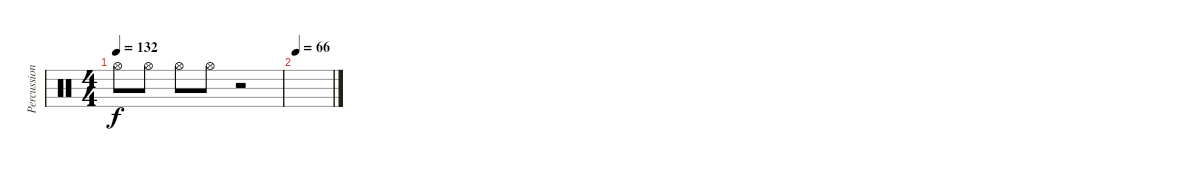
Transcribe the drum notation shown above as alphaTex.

\track ("Percussions" "Percussion") {instrument percussion}
\staff {score}
\articulation defaults
\ts (4 4)
\tempo 132
\clef neutral
\ks c "Hi-Hat (open)".8{dy f} "Hi-Hat (open)".8 "Hi-Hat (open)".8 "Hi-Hat (open)".8
r.2 |
\tempo 66
